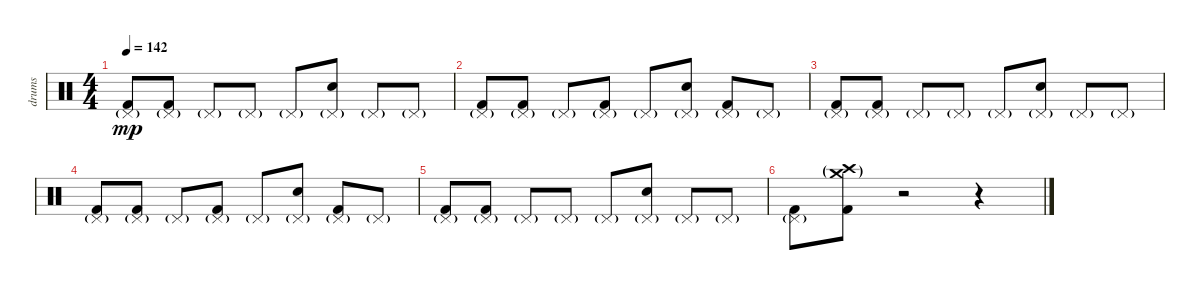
\track ("drums" "drums") {instrument percussion}
\staff {score}
\articulation defaults
\ts (4 4)
\tempo 142
\clef neutral
\ks c
("Kick (hit) 2" "Pedal Hi-Hat (hit)"{g}).8{dy mp} ("Kick (hit) 2" "Pedal Hi-Hat (hit)"{g}).8 "Pedal Hi-Hat (hit)"{g}.8 "Pedal Hi-Hat (hit)"{g}.8 "Pedal Hi-Hat (hit)"{g}.8 ("Snare (hit) 2" "Pedal Hi-Hat (hit)"{g}).8 "Pedal Hi-Hat (hit)"{g}.8 "Pedal Hi-Hat (hit)"{g}.8 |
("Kick (hit) 2" "Pedal Hi-Hat (hit)"{g}).8 ("Kick (hit) 2" "Pedal Hi-Hat (hit)"{g}).8 "Pedal Hi-Hat (hit)"{g}.8 ("Kick (hit) 2" "Pedal Hi-Hat (hit)"{g}).8 "Pedal Hi-Hat (hit)"{g}.8 ("Snare (hit) 2" "Pedal Hi-Hat (hit)"{g}).8 ("Kick (hit) 2" "Pedal Hi-Hat (hit)"{g}).8 "Pedal Hi-Hat (hit)"{g}.8 |
("Kick (hit) 2" "Pedal Hi-Hat (hit)"{g}).8 ("Kick (hit) 2" "Pedal Hi-Hat (hit)"{g}).8 "Pedal Hi-Hat (hit)"{g}.8 "Pedal Hi-Hat (hit)"{g}.8 "Pedal Hi-Hat (hit)"{g}.8 ("Snare (hit) 2" "Pedal Hi-Hat (hit)"{g}).8 "Pedal Hi-Hat (hit)"{g}.8 "Pedal Hi-Hat (hit)"{g}.8 |
("Kick (hit) 2" "Pedal Hi-Hat (hit)"{g}).8 ("Kick (hit) 2" "Pedal Hi-Hat (hit)"{g}).8 "Pedal Hi-Hat (hit)"{g}.8 ("Kick (hit) 2" "Pedal Hi-Hat (hit)"{g}).8 "Pedal Hi-Hat (hit)"{g}.8 ("Snare (hit) 2" "Pedal Hi-Hat (hit)"{g}).8 ("Kick (hit) 2" "Pedal Hi-Hat (hit)"{g}).8 "Pedal Hi-Hat (hit)"{g}.8 |
("Kick (hit) 2" "Pedal Hi-Hat (hit)"{g}).8 ("Kick (hit) 2" "Pedal Hi-Hat (hit)"{g}).8 "Pedal Hi-Hat (hit)"{g}.8 "Pedal Hi-Hat (hit)"{g}.8 "Pedal Hi-Hat (hit)"{g}.8 ("Snare (hit) 2" "Pedal Hi-Hat (hit)"{g}).8 "Pedal Hi-Hat (hit)"{g}.8 "Pedal Hi-Hat (hit)"{g}.8 |
("Kick (hit) 2" "Pedal Hi-Hat (hit)"{g}).8 ("Kick (hit) 2" "Crash medium (hit)"{g} "Crash high (hit)"{g}).8 r.2 r.4
